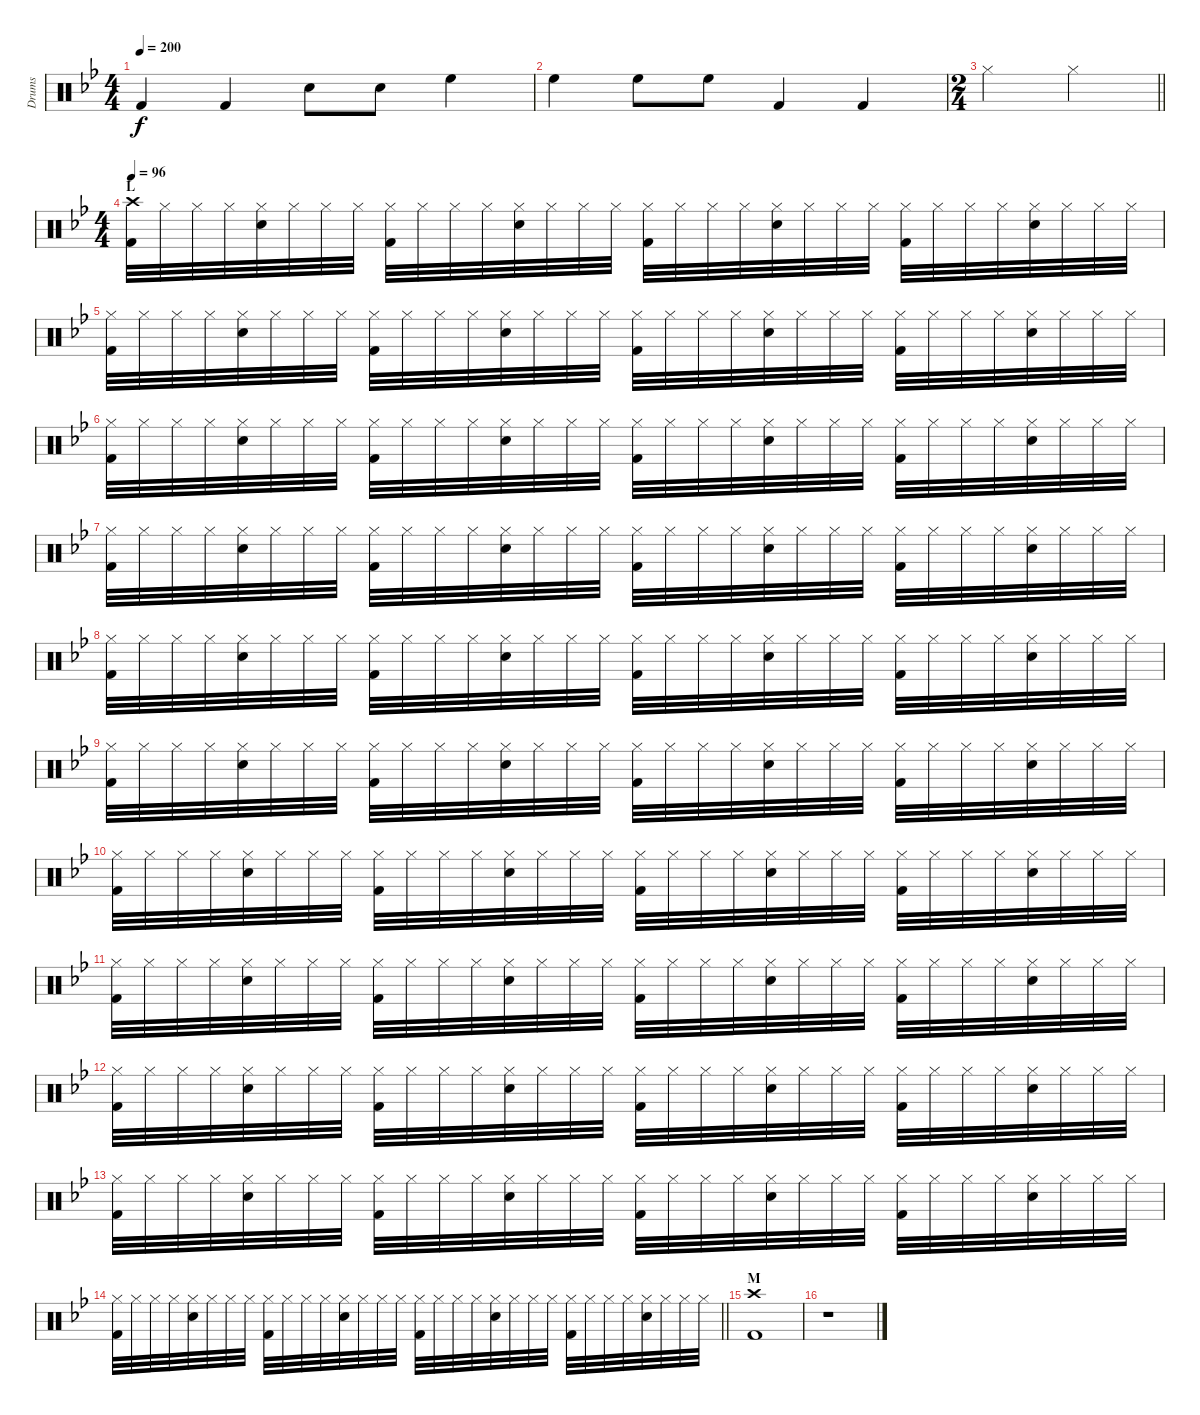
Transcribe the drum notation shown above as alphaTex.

\track ("Drums" "Drums") {instrument percussion}
\staff {score}
\articulation defaults
\ts (4 4)
\tempo 200
\clef neutral
\ks gminor "Kick (hit) 2".4{dy f} "Kick (hit) 2".4 "Electric Snare (hit)".8 "Electric Snare (hit)".8 "High Floor Tom (hit)".4
|
"High Floor Tom (hit)".4 "High Floor Tom (hit)".8 "High Floor Tom (hit)".8 "Kick (hit) 2".4 "Kick (hit) 2".4 |
\ts (2 4)
\barLineRight lightlight "Hi-Hat (closed)".4 "Hi-Hat (closed)".4
|
\ts (4 4)
\section ("" "L")
\tempo 96
("Crash high (hit)" "Kick (hit) 2").32 "Hi-Hat (closed)".32 "Hi-Hat (closed)".32 "Hi-Hat (closed)".32 ("Hi-Hat (closed)" "Electric Snare (hit)").32 "Hi-Hat (closed)".32 "Hi-Hat (closed)".32 "Hi-Hat (closed)".32 ("Hi-Hat (closed)" "Kick (hit) 2").32 "Hi-Hat (closed)".32 "Hi-Hat (closed)".32 "Hi-Hat (closed)".32 ("Hi-Hat (closed)" "Electric Snare (hit)").32 "Hi-Hat (closed)".32 "Hi-Hat (closed)".32 "Hi-Hat (closed)".32 ("Hi-Hat (closed)" "Kick (hit) 2").32 "Hi-Hat (closed)".32 "Hi-Hat (closed)".32 "Hi-Hat (closed)".32 ("Hi-Hat (closed)" "Electric Snare (hit)").32 "Hi-Hat (closed)".32 "Hi-Hat (closed)".32 "Hi-Hat (closed)".32 ("Hi-Hat (closed)" "Kick (hit) 2").32 "Hi-Hat (closed)".32 "Hi-Hat (closed)".32 "Hi-Hat (closed)".32 ("Hi-Hat (closed)" "Electric Snare (hit)").32 "Hi-Hat (closed)".32 "Hi-Hat (closed)".32 "Hi-Hat (closed)".32 |
("Hi-Hat (closed)" "Kick (hit) 2").32 "Hi-Hat (closed)".32 "Hi-Hat (closed)".32 "Hi-Hat (closed)".32 ("Hi-Hat (closed)" "Electric Snare (hit)").32 "Hi-Hat (closed)".32 "Hi-Hat (closed)".32 "Hi-Hat (closed)".32 ("Hi-Hat (closed)" "Kick (hit) 2").32 "Hi-Hat (closed)".32 "Hi-Hat (closed)".32 "Hi-Hat (closed)".32 ("Hi-Hat (closed)" "Electric Snare (hit)").32 "Hi-Hat (closed)".32 "Hi-Hat (closed)".32 "Hi-Hat (closed)".32 ("Hi-Hat (closed)" "Kick (hit) 2").32 "Hi-Hat (closed)".32 "Hi-Hat (closed)".32 "Hi-Hat (closed)".32 ("Hi-Hat (closed)" "Electric Snare (hit)").32 "Hi-Hat (closed)".32 "Hi-Hat (closed)".32 "Hi-Hat (closed)".32 ("Hi-Hat (closed)" "Kick (hit) 2").32 "Hi-Hat (closed)".32 "Hi-Hat (closed)".32 "Hi-Hat (closed)".32 ("Hi-Hat (closed)" "Electric Snare (hit)").32 "Hi-Hat (closed)".32 "Hi-Hat (closed)".32 "Hi-Hat (closed)".32 |
("Hi-Hat (closed)" "Kick (hit) 2").32 "Hi-Hat (closed)".32 "Hi-Hat (closed)".32 "Hi-Hat (closed)".32 ("Hi-Hat (closed)" "Electric Snare (hit)").32 "Hi-Hat (closed)".32 "Hi-Hat (closed)".32 "Hi-Hat (closed)".32 ("Hi-Hat (closed)" "Kick (hit) 2").32 "Hi-Hat (closed)".32 "Hi-Hat (closed)".32 "Hi-Hat (closed)".32 ("Hi-Hat (closed)" "Electric Snare (hit)").32 "Hi-Hat (closed)".32 "Hi-Hat (closed)".32 "Hi-Hat (closed)".32 ("Hi-Hat (closed)" "Kick (hit) 2").32 "Hi-Hat (closed)".32 "Hi-Hat (closed)".32 "Hi-Hat (closed)".32 ("Hi-Hat (closed)" "Electric Snare (hit)").32 "Hi-Hat (closed)".32 "Hi-Hat (closed)".32 "Hi-Hat (closed)".32 ("Hi-Hat (closed)" "Kick (hit) 2").32 "Hi-Hat (closed)".32 "Hi-Hat (closed)".32 "Hi-Hat (closed)".32 ("Hi-Hat (closed)" "Electric Snare (hit)").32 "Hi-Hat (closed)".32 "Hi-Hat (closed)".32 "Hi-Hat (closed)".32 |
("Hi-Hat (closed)" "Kick (hit) 2").32 "Hi-Hat (closed)".32 "Hi-Hat (closed)".32 "Hi-Hat (closed)".32 ("Hi-Hat (closed)" "Electric Snare (hit)").32 "Hi-Hat (closed)".32 "Hi-Hat (closed)".32 "Hi-Hat (closed)".32 ("Hi-Hat (closed)" "Kick (hit) 2").32 "Hi-Hat (closed)".32 "Hi-Hat (closed)".32 "Hi-Hat (closed)".32 ("Hi-Hat (closed)" "Electric Snare (hit)").32 "Hi-Hat (closed)".32 "Hi-Hat (closed)".32 "Hi-Hat (closed)".32 ("Hi-Hat (closed)" "Kick (hit) 2").32 "Hi-Hat (closed)".32 "Hi-Hat (closed)".32 "Hi-Hat (closed)".32 ("Hi-Hat (closed)" "Electric Snare (hit)").32 "Hi-Hat (closed)".32 "Hi-Hat (closed)".32 "Hi-Hat (closed)".32 ("Hi-Hat (closed)" "Kick (hit) 2").32 "Hi-Hat (closed)".32 "Hi-Hat (closed)".32 "Hi-Hat (closed)".32 ("Hi-Hat (closed)" "Electric Snare (hit)").32 "Hi-Hat (closed)".32 "Hi-Hat (closed)".32 "Hi-Hat (closed)".32 |
("Hi-Hat (closed)" "Kick (hit) 2").32 "Hi-Hat (closed)".32 "Hi-Hat (closed)".32 "Hi-Hat (closed)".32 ("Hi-Hat (closed)" "Electric Snare (hit)").32 "Hi-Hat (closed)".32 "Hi-Hat (closed)".32 "Hi-Hat (closed)".32 ("Hi-Hat (closed)" "Kick (hit) 2").32 "Hi-Hat (closed)".32 "Hi-Hat (closed)".32 "Hi-Hat (closed)".32 ("Hi-Hat (closed)" "Electric Snare (hit)").32 "Hi-Hat (closed)".32 "Hi-Hat (closed)".32 "Hi-Hat (closed)".32 ("Hi-Hat (closed)" "Kick (hit) 2").32 "Hi-Hat (closed)".32 "Hi-Hat (closed)".32 "Hi-Hat (closed)".32 ("Hi-Hat (closed)" "Electric Snare (hit)").32 "Hi-Hat (closed)".32 "Hi-Hat (closed)".32 "Hi-Hat (closed)".32 ("Hi-Hat (closed)" "Kick (hit) 2").32 "Hi-Hat (closed)".32 "Hi-Hat (closed)".32 "Hi-Hat (closed)".32 ("Hi-Hat (closed)" "Electric Snare (hit)").32 "Hi-Hat (closed)".32 "Hi-Hat (closed)".32 "Hi-Hat (closed)".32 |
("Hi-Hat (closed)" "Kick (hit) 2").32 "Hi-Hat (closed)".32 "Hi-Hat (closed)".32 "Hi-Hat (closed)".32 ("Hi-Hat (closed)" "Electric Snare (hit)").32 "Hi-Hat (closed)".32 "Hi-Hat (closed)".32 "Hi-Hat (closed)".32 ("Hi-Hat (closed)" "Kick (hit) 2").32 "Hi-Hat (closed)".32 "Hi-Hat (closed)".32 "Hi-Hat (closed)".32 ("Hi-Hat (closed)" "Electric Snare (hit)").32 "Hi-Hat (closed)".32 "Hi-Hat (closed)".32 "Hi-Hat (closed)".32 ("Hi-Hat (closed)" "Kick (hit) 2").32 "Hi-Hat (closed)".32 "Hi-Hat (closed)".32 "Hi-Hat (closed)".32 ("Hi-Hat (closed)" "Electric Snare (hit)").32 "Hi-Hat (closed)".32 "Hi-Hat (closed)".32 "Hi-Hat (closed)".32 ("Hi-Hat (closed)" "Kick (hit) 2").32 "Hi-Hat (closed)".32 "Hi-Hat (closed)".32 "Hi-Hat (closed)".32 ("Hi-Hat (closed)" "Electric Snare (hit)").32 "Hi-Hat (closed)".32 "Hi-Hat (closed)".32 "Hi-Hat (closed)".32 |
("Hi-Hat (closed)" "Kick (hit) 2").32 "Hi-Hat (closed)".32 "Hi-Hat (closed)".32 "Hi-Hat (closed)".32 ("Hi-Hat (closed)" "Electric Snare (hit)").32 "Hi-Hat (closed)".32 "Hi-Hat (closed)".32 "Hi-Hat (closed)".32 ("Hi-Hat (closed)" "Kick (hit) 2").32 "Hi-Hat (closed)".32 "Hi-Hat (closed)".32 "Hi-Hat (closed)".32 ("Hi-Hat (closed)" "Electric Snare (hit)").32 "Hi-Hat (closed)".32 "Hi-Hat (closed)".32 "Hi-Hat (closed)".32 ("Hi-Hat (closed)" "Kick (hit) 2").32 "Hi-Hat (closed)".32 "Hi-Hat (closed)".32 "Hi-Hat (closed)".32 ("Hi-Hat (closed)" "Electric Snare (hit)").32 "Hi-Hat (closed)".32 "Hi-Hat (closed)".32 "Hi-Hat (closed)".32 ("Hi-Hat (closed)" "Kick (hit) 2").32 "Hi-Hat (closed)".32 "Hi-Hat (closed)".32 "Hi-Hat (closed)".32 ("Hi-Hat (closed)" "Electric Snare (hit)").32 "Hi-Hat (closed)".32 "Hi-Hat (closed)".32 "Hi-Hat (closed)".32 |
("Hi-Hat (closed)" "Kick (hit) 2").32 "Hi-Hat (closed)".32 "Hi-Hat (closed)".32 "Hi-Hat (closed)".32 ("Hi-Hat (closed)" "Electric Snare (hit)").32 "Hi-Hat (closed)".32 "Hi-Hat (closed)".32 "Hi-Hat (closed)".32 ("Hi-Hat (closed)" "Kick (hit) 2").32 "Hi-Hat (closed)".32 "Hi-Hat (closed)".32 "Hi-Hat (closed)".32 ("Hi-Hat (closed)" "Electric Snare (hit)").32 "Hi-Hat (closed)".32 "Hi-Hat (closed)".32 "Hi-Hat (closed)".32 ("Hi-Hat (closed)" "Kick (hit) 2").32 "Hi-Hat (closed)".32 "Hi-Hat (closed)".32 "Hi-Hat (closed)".32 ("Hi-Hat (closed)" "Electric Snare (hit)").32 "Hi-Hat (closed)".32 "Hi-Hat (closed)".32 "Hi-Hat (closed)".32 ("Hi-Hat (closed)" "Kick (hit) 2").32 "Hi-Hat (closed)".32 "Hi-Hat (closed)".32 "Hi-Hat (closed)".32 ("Hi-Hat (closed)" "Electric Snare (hit)").32 "Hi-Hat (closed)".32 "Hi-Hat (closed)".32 "Hi-Hat (closed)".32 |
("Hi-Hat (closed)" "Kick (hit) 2").32 "Hi-Hat (closed)".32 "Hi-Hat (closed)".32 "Hi-Hat (closed)".32 ("Hi-Hat (closed)" "Electric Snare (hit)").32 "Hi-Hat (closed)".32 "Hi-Hat (closed)".32 "Hi-Hat (closed)".32 ("Hi-Hat (closed)" "Kick (hit) 2").32 "Hi-Hat (closed)".32 "Hi-Hat (closed)".32 "Hi-Hat (closed)".32 ("Hi-Hat (closed)" "Electric Snare (hit)").32 "Hi-Hat (closed)".32 "Hi-Hat (closed)".32 "Hi-Hat (closed)".32 ("Hi-Hat (closed)" "Kick (hit) 2").32 "Hi-Hat (closed)".32 "Hi-Hat (closed)".32 "Hi-Hat (closed)".32 ("Hi-Hat (closed)" "Electric Snare (hit)").32 "Hi-Hat (closed)".32 "Hi-Hat (closed)".32 "Hi-Hat (closed)".32 ("Hi-Hat (closed)" "Kick (hit) 2").32 "Hi-Hat (closed)".32 "Hi-Hat (closed)".32 "Hi-Hat (closed)".32 ("Hi-Hat (closed)" "Electric Snare (hit)").32 "Hi-Hat (closed)".32 "Hi-Hat (closed)".32 "Hi-Hat (closed)".32 |
("Hi-Hat (closed)" "Kick (hit) 2").32 "Hi-Hat (closed)".32 "Hi-Hat (closed)".32 "Hi-Hat (closed)".32 ("Hi-Hat (closed)" "Electric Snare (hit)").32 "Hi-Hat (closed)".32 "Hi-Hat (closed)".32 "Hi-Hat (closed)".32 ("Hi-Hat (closed)" "Kick (hit) 2").32 "Hi-Hat (closed)".32 "Hi-Hat (closed)".32 "Hi-Hat (closed)".32 ("Hi-Hat (closed)" "Electric Snare (hit)").32 "Hi-Hat (closed)".32 "Hi-Hat (closed)".32 "Hi-Hat (closed)".32 ("Hi-Hat (closed)" "Kick (hit) 2").32 "Hi-Hat (closed)".32 "Hi-Hat (closed)".32 "Hi-Hat (closed)".32 ("Hi-Hat (closed)" "Electric Snare (hit)").32 "Hi-Hat (closed)".32 "Hi-Hat (closed)".32 "Hi-Hat (closed)".32 ("Hi-Hat (closed)" "Kick (hit) 2").32 "Hi-Hat (closed)".32 "Hi-Hat (closed)".32 "Hi-Hat (closed)".32 ("Hi-Hat (closed)" "Electric Snare (hit)").32 "Hi-Hat (closed)".32 "Hi-Hat (closed)".32 "Hi-Hat (closed)".32 |
\barLineRight lightlight
("Hi-Hat (closed)" "Kick (hit) 2").32 "Hi-Hat (closed)".32 "Hi-Hat (closed)".32 "Hi-Hat (closed)".32 ("Hi-Hat (closed)" "Electric Snare (hit)").32 "Hi-Hat (closed)".32 "Hi-Hat (closed)".32 "Hi-Hat (closed)".32 ("Hi-Hat (closed)" "Kick (hit) 2").32 "Hi-Hat (closed)".32 "Hi-Hat (closed)".32 "Hi-Hat (closed)".32 ("Hi-Hat (closed)" "Electric Snare (hit)").32 "Hi-Hat (closed)".32 "Hi-Hat (closed)".32 "Hi-Hat (closed)".32 ("Hi-Hat (closed)" "Kick (hit) 2").32 "Hi-Hat (closed)".32 "Hi-Hat (closed)".32 "Hi-Hat (closed)".32 ("Hi-Hat (closed)" "Electric Snare (hit)").32 "Hi-Hat (closed)".32 "Hi-Hat (closed)".32 "Hi-Hat (closed)".32 ("Hi-Hat (closed)" "Kick (hit) 2").32 "Hi-Hat (closed)".32 "Hi-Hat (closed)".32 "Hi-Hat (closed)".32 ("Hi-Hat (closed)" "Electric Snare (hit)").32 "Hi-Hat (closed)".32 "Hi-Hat (closed)".32 "Hi-Hat (closed)".32 |
\section ("" "M")
("Crash high (hit)" "Kick (hit) 2").1 |
r.1
